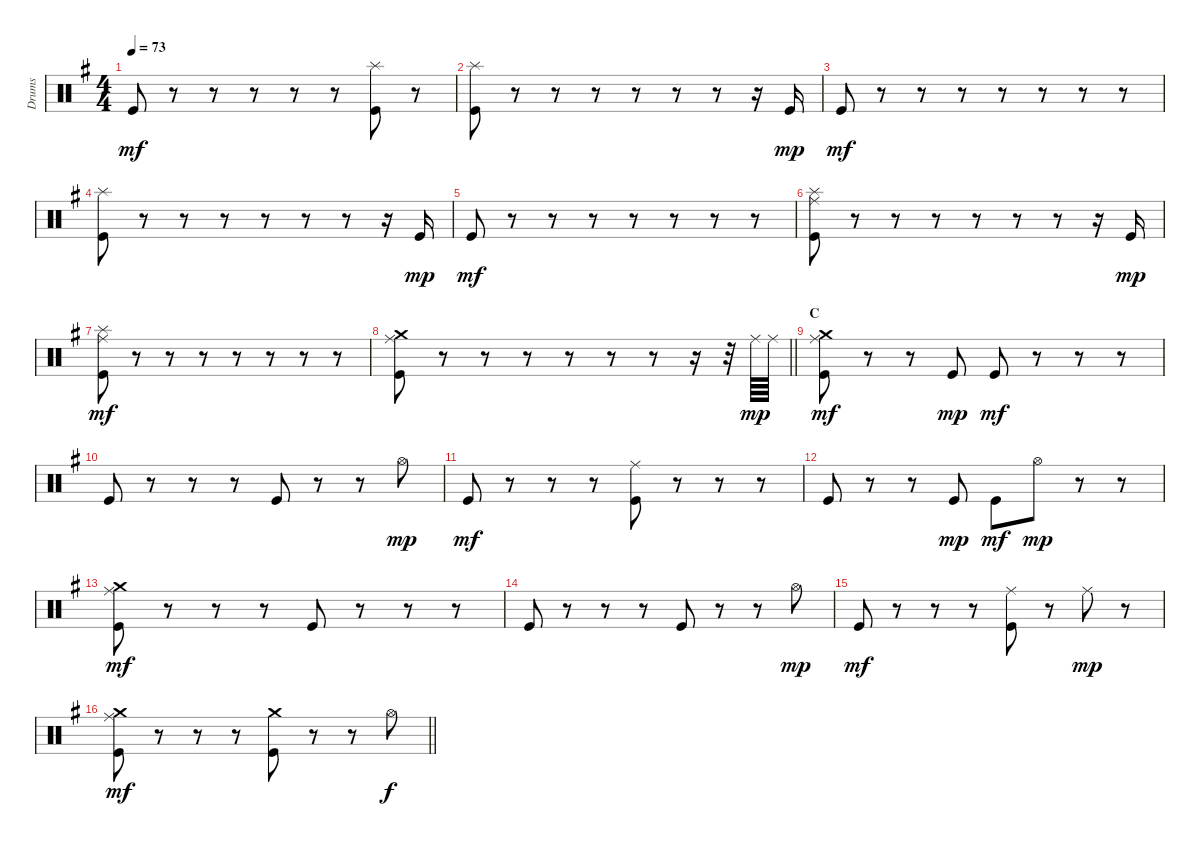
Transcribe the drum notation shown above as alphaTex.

\track ("Drums" "Drums") {instrument percussion}
\staff {score}
\articulation defaults
\ts (4 4)
\tempo 73
\clef neutral
\ks g "Kick (hit)".8{dy mf}
r.8 r.8 r.8 r.8 r.8 ("Splash (hit)" "Kick (hit)").8 r.8 |
("Splash (hit)" "Kick (hit)").8 r.8 r.8 r.8 r.8 r.8 r.8 r.16 "Kick (hit)".16{dy mp} |
"Kick (hit)".8{dy mf} r.8 r.8 r.8 r.8 r.8 r.8 r.8 |
("Splash (hit)" "Kick (hit)").8 r.8 r.8 r.8 r.8 r.8 r.8 r.16 "Kick (hit)".16{dy mp} |
"Kick (hit)".8{dy mf} r.8 r.8 r.8 r.8 r.8 r.8 r.8 |
("Splash (hit)" "Ride (middle)" "Kick (hit)").8 r.8 r.8 r.8 r.8 r.8 r.8 r.16 "Kick (hit)".16{dy mp} |
("Splash (hit)" "Ride (middle)" "Kick (hit)").8{dy mf} r.8 r.8 r.8 r.8 r.8 r.8 r.8 |
\barLineRight lightlight
("Crash medium (hit)" "Ride (middle)" "Kick (hit)").8 r.8 r.8 r.8 r.8 r.8 r.8 r.16 r.32 "Ride (middle)".64{dy mp} "Ride (middle)".64 |
\section ("" "C")
("Ride (middle)" "Crash medium (hit)" "Kick (hit)").8{dy mf} r.8 r.8 "Kick (hit)".8{dy mp} "Kick (hit)".8{dy mf} r.8 r.8 r.8 |
"Kick (hit)".8 r.8 r.8 r.8 "Kick (hit)".8 r.8 r.8 "Hi-Hat (open)".8{dy mp} |
"Kick (hit)".8{dy mf} r.8 r.8 r.8 ("Ride (middle)" "Kick (hit)").8 r.8 r.8 r.8 |
"Kick (hit)".8 r.8 r.8 "Kick (hit)".8{dy mp} "Kick (hit)".8{dy mf} "Hi-Hat (open)".8{dy mp} r.8 r.8 |
("Ride (middle)" "Crash medium (hit)" "Kick (hit)").8{dy mf} r.8 r.8 r.8 "Kick (hit)".8 r.8 r.8 r.8 |
"Kick (hit)".8 r.8 r.8 r.8 "Kick (hit)".8 r.8 r.8 "Hi-Hat (open)".8{dy mp} |
"Kick (hit)".8{dy mf} r.8 r.8 r.8 ("Ride (middle)" "Kick (hit)").8 r.8 "Ride (middle)".8{dy mp} r.8 |
\barLineRight lightlight
("Ride (middle)" "Crash medium (hit)" "Kick (hit)").8{dy mf} r.8 r.8 r.8 ("Crash medium (hit)" "Kick (hit)").8 r.8 r.8 "Hi-Hat (open)".8{dy f}
